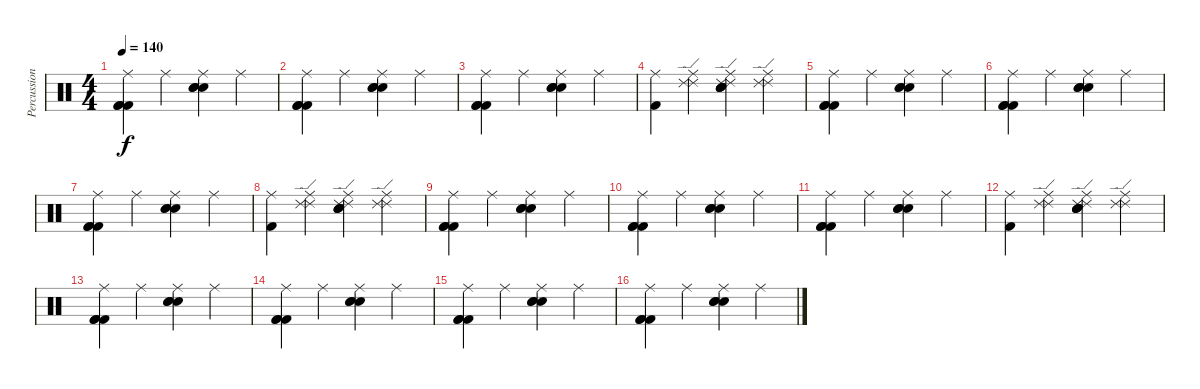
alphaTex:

\track ("Percussion" "Percussion") {instrument percussion}
\staff {score}
\articulation defaults
\ts (4 4)
\tempo 140
\clef neutral
\ks c
("Ride (middle)" "Kick (hit) 2" "Kick (hit) 2" "Kick (hit) 2").4{dy f} "Ride (middle)".4 ("Ride (middle)" "Electric Snare (hit)" "Electric Snare (hit)" "Electric Snare (hit)").4 "Ride (middle)".4 |
("Ride (middle)" "Kick (hit) 2" "Kick (hit) 2" "Kick (hit) 2").4 "Ride (middle)".4 ("Ride (middle)" "Electric Snare (hit)" "Electric Snare (hit)" "Electric Snare (hit)").4 "Ride (middle)".4 |
("Ride (middle)" "Kick (hit) 2" "Kick (hit) 2" "Kick (hit) 2").4 "Ride (middle)".4 ("Ride (middle)" "Electric Snare (hit)" "Electric Snare (hit)" "Electric Snare (hit)").4 "Ride (middle)".4 |
("Ride (middle)" "Kick (hit) 2").4 ("Ride (middle)" "Ride (edge) 2" "Ride (edge) 2").4 ("Ride (middle)" "Electric Snare (hit)" "Electric Snare (hit)" "Electric Snare (hit)" "Ride (edge) 2" "Ride (edge) 2").4 ("Ride (middle)" "Ride (edge) 2" "Ride (edge) 2").4 |
("Ride (middle)" "Kick (hit) 2" "Kick (hit) 2" "Kick (hit) 2").4 "Ride (middle)".4 ("Ride (middle)" "Electric Snare (hit)" "Electric Snare (hit)" "Electric Snare (hit)").4 "Ride (middle)".4 |
("Ride (middle)" "Kick (hit) 2" "Kick (hit) 2" "Kick (hit) 2").4 "Ride (middle)".4 ("Ride (middle)" "Electric Snare (hit)" "Electric Snare (hit)" "Electric Snare (hit)").4 "Ride (middle)".4 |
("Ride (middle)" "Kick (hit) 2" "Kick (hit) 2" "Kick (hit) 2").4 "Ride (middle)".4 ("Ride (middle)" "Electric Snare (hit)" "Electric Snare (hit)" "Electric Snare (hit)").4 "Ride (middle)".4 |
("Ride (middle)" "Kick (hit) 2").4 ("Ride (middle)" "Ride (edge) 2" "Ride (edge) 2").4 ("Ride (middle)" "Electric Snare (hit)" "Electric Snare (hit)" "Electric Snare (hit)" "Ride (edge) 2" "Ride (edge) 2").4 ("Ride (middle)" "Ride (edge) 2" "Ride (edge) 2").4 |
("Ride (middle)" "Kick (hit) 2" "Kick (hit) 2" "Kick (hit) 2").4 "Ride (middle)".4 ("Ride (middle)" "Electric Snare (hit)" "Electric Snare (hit)" "Electric Snare (hit)").4 "Ride (middle)".4 |
("Ride (middle)" "Kick (hit) 2" "Kick (hit) 2" "Kick (hit) 2").4 "Ride (middle)".4 ("Ride (middle)" "Electric Snare (hit)" "Electric Snare (hit)" "Electric Snare (hit)").4 "Ride (middle)".4 |
("Ride (middle)" "Kick (hit) 2" "Kick (hit) 2" "Kick (hit) 2").4 "Ride (middle)".4 ("Ride (middle)" "Electric Snare (hit)" "Electric Snare (hit)" "Electric Snare (hit)").4 "Ride (middle)".4 |
("Ride (middle)" "Kick (hit) 2").4 ("Ride (middle)" "Ride (edge) 2" "Ride (edge) 2").4 ("Ride (middle)" "Electric Snare (hit)" "Electric Snare (hit)" "Electric Snare (hit)" "Ride (edge) 2" "Ride (edge) 2").4 ("Ride (middle)" "Ride (edge) 2" "Ride (edge) 2").4 |
("Ride (middle)" "Kick (hit) 2" "Kick (hit) 2" "Kick (hit) 2").4 "Ride (middle)".4 ("Ride (middle)" "Electric Snare (hit)" "Electric Snare (hit)" "Electric Snare (hit)").4 "Ride (middle)".4 |
("Ride (middle)" "Kick (hit) 2" "Kick (hit) 2" "Kick (hit) 2").4 "Ride (middle)".4 ("Ride (middle)" "Electric Snare (hit)" "Electric Snare (hit)" "Electric Snare (hit)").4 "Ride (middle)".4 |
("Ride (middle)" "Kick (hit) 2" "Kick (hit) 2" "Kick (hit) 2").4 "Ride (middle)".4 ("Ride (middle)" "Electric Snare (hit)" "Electric Snare (hit)" "Electric Snare (hit)").4 "Ride (middle)".4 |
("Ride (middle)" "Kick (hit) 2" "Kick (hit) 2" "Kick (hit) 2").4 "Ride (middle)".4 ("Ride (middle)" "Electric Snare (hit)" "Electric Snare (hit)" "Electric Snare (hit)").4 "Ride (middle)".4
